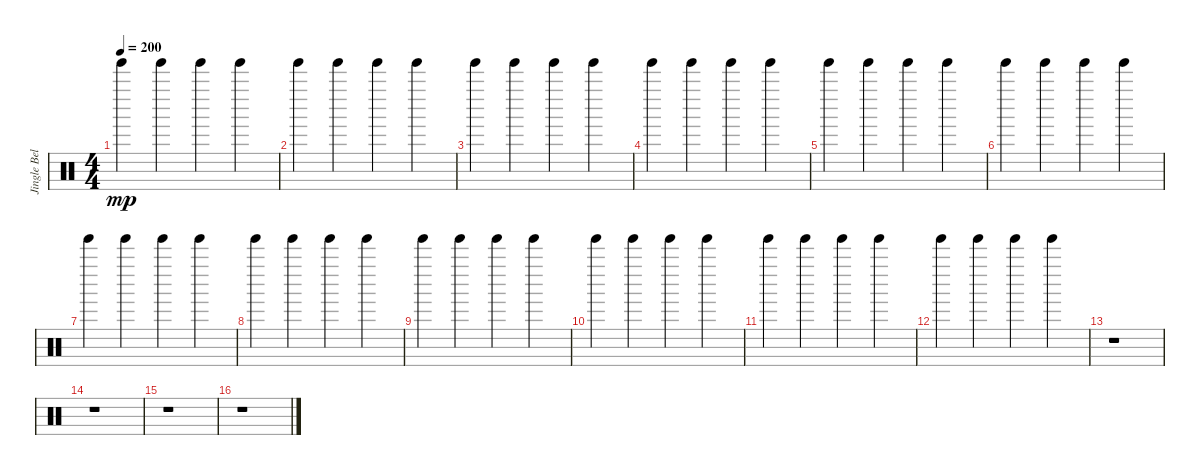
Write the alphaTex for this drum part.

\track ("Jingle Bells" "Jingle Bel") {instrument percussion}
\staff {score}
\articulation defaults
\ts (4 4)
\tempo 200
\clef neutral
\ks c "Tinkle Bell (hit)".4{dy mp} "Tinkle Bell (hit)".4 "Tinkle Bell (hit)".4 "Tinkle Bell (hit)".4
|
"Tinkle Bell (hit)".4 "Tinkle Bell (hit)".4 "Tinkle Bell (hit)".4 "Tinkle Bell (hit)".4 |
"Tinkle Bell (hit)".4 "Tinkle Bell (hit)".4 "Tinkle Bell (hit)".4 "Tinkle Bell (hit)".4 |
"Tinkle Bell (hit)".4 "Tinkle Bell (hit)".4 "Tinkle Bell (hit)".4 "Tinkle Bell (hit)".4 |
"Tinkle Bell (hit)".4 "Tinkle Bell (hit)".4 "Tinkle Bell (hit)".4 "Tinkle Bell (hit)".4 |
"Tinkle Bell (hit)".4 "Tinkle Bell (hit)".4 "Tinkle Bell (hit)".4 "Tinkle Bell (hit)".4 |
"Tinkle Bell (hit)".4 "Tinkle Bell (hit)".4 "Tinkle Bell (hit)".4 "Tinkle Bell (hit)".4 |
"Tinkle Bell (hit)".4 "Tinkle Bell (hit)".4 "Tinkle Bell (hit)".4 "Tinkle Bell (hit)".4 |
"Tinkle Bell (hit)".4 "Tinkle Bell (hit)".4 "Tinkle Bell (hit)".4 "Tinkle Bell (hit)".4 |
"Tinkle Bell (hit)".4 "Tinkle Bell (hit)".4 "Tinkle Bell (hit)".4 "Tinkle Bell (hit)".4 |
"Tinkle Bell (hit)".4 "Tinkle Bell (hit)".4 "Tinkle Bell (hit)".4 "Tinkle Bell (hit)".4 |
"Tinkle Bell (hit)".4 "Tinkle Bell (hit)".4 "Tinkle Bell (hit)".4 "Tinkle Bell (hit)".4 |
r.1 |
r.1 |
r.1 |
r.1
